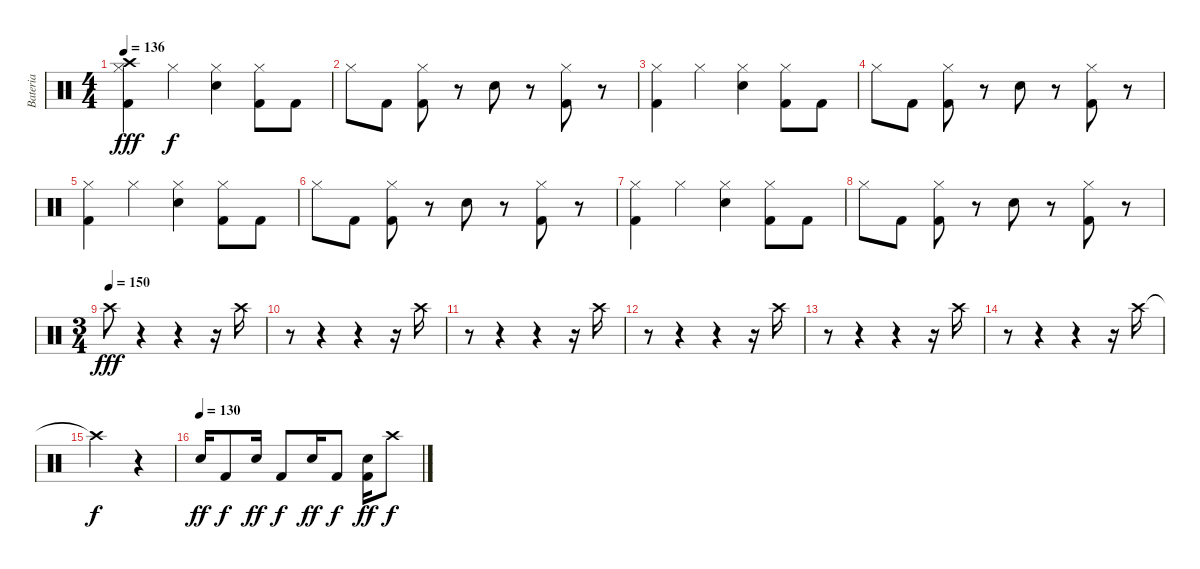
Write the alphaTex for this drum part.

\track ("Bateria" "Bateria") {instrument percussion}
\staff {score}
\articulation defaults
\ts (4 4)
\tempo 136
\clef neutral
\ks c
("Kick (hit) 2" "Hi-Hat (closed)" "Crash high (hit)").4{dy fff} "Hi-Hat (closed)".4{dy f} ("Snare (hit) 2" "Hi-Hat (closed)").4 ("Kick (hit) 2" "Hi-Hat (closed)").8 "Kick (hit) 2".8 |
"Hi-Hat (closed)".8 "Kick (hit) 2".8 ("Kick (hit) 2" "Hi-Hat (closed)").8 r.8 "Snare (hit) 2".8 r.8 ("Kick (hit) 2" "Hi-Hat (closed)").8 r.8 |
("Kick (hit) 2" "Hi-Hat (closed)").4 "Hi-Hat (closed)".4 ("Snare (hit) 2" "Hi-Hat (closed)").4 ("Kick (hit) 2" "Hi-Hat (closed)").8 "Kick (hit) 2".8 |
"Hi-Hat (closed)".8 "Kick (hit) 2".8 ("Kick (hit) 2" "Hi-Hat (closed)").8 r.8 "Snare (hit) 2".8 r.8 ("Kick (hit) 2" "Hi-Hat (closed)").8 r.8 |
("Kick (hit) 2" "Hi-Hat (closed)").4 "Hi-Hat (closed)".4 ("Snare (hit) 2" "Hi-Hat (closed)").4 ("Kick (hit) 2" "Hi-Hat (closed)").8 "Kick (hit) 2".8 |
"Hi-Hat (closed)".8 "Kick (hit) 2".8 ("Kick (hit) 2" "Hi-Hat (closed)").8 r.8 "Snare (hit) 2".8 r.8 ("Kick (hit) 2" "Hi-Hat (closed)").8 r.8 |
("Kick (hit) 2" "Hi-Hat (closed)").4 "Hi-Hat (closed)".4 ("Snare (hit) 2" "Hi-Hat (closed)").4 ("Kick (hit) 2" "Hi-Hat (closed)").8 "Kick (hit) 2".8 |
"Hi-Hat (closed)".8 "Kick (hit) 2".8 ("Kick (hit) 2" "Hi-Hat (closed)").8 r.8 "Snare (hit) 2".8 r.8 ("Kick (hit) 2" "Hi-Hat (closed)").8 r.8 |
\ts (3 4)
\tempo (150)
"Crash high (hit)".8{dy fff} r.4 r.4 r.16 "Crash high (hit)".16 |
r.8 r.4 r.4 r.16 "Crash high (hit)".16 |
r.8 r.4 r.4 r.16 "Crash high (hit)".16 |
r.8 r.4 r.4 r.16 "Crash high (hit)".16 |
r.8 r.4 r.4 r.16 "Crash high (hit)".16 |
r.8 r.4 r.4 r.16 "Crash high (hit)".16 |
"Crash high (hit)"{t}.2{dy f} r.4 |
\tempo (130)
"Snare (hit) 2".16{dy ff} "Kick (hit) 2".8{dy f} "Snare (hit) 2".16{dy ff} "Kick (hit) 2".8{dy f} "Snare (hit) 2".16{dy ff} "Kick (hit) 2".8{dy f} ("Kick (hit) 2" "Snare (hit) 2").16{dy ff} "Crash high (hit)".8{dy f}
